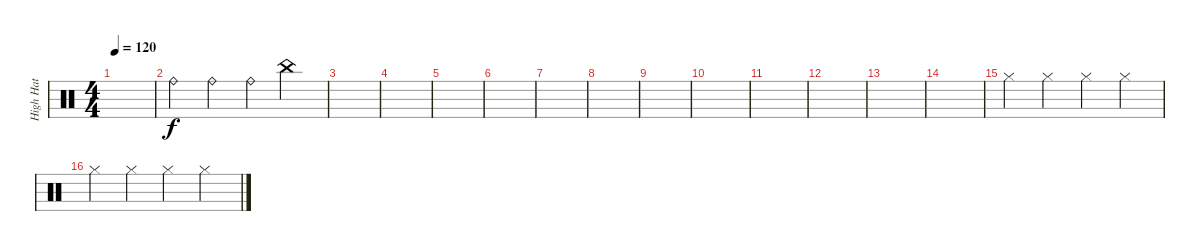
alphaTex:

\track ("High Hat" "High Hat") {instrument percussion}
\staff {score}
\articulation defaults
\ts (4 4)
\tempo 120
\clef neutral
\ks c
|
"Ride (bell)".4 "Ride (bell)".4 "Ride (bell)".4 "China (hit)".4 |
|
|
|
|
|
|
|
|
|
|
|
|
"Hi-Hat (closed)".4 "Hi-Hat (closed)".4 "Hi-Hat (closed)".4 "Hi-Hat (closed)".4 |
"Hi-Hat (closed)".4 "Hi-Hat (closed)".4 "Hi-Hat (closed)".4 "Hi-Hat (closed)".4
